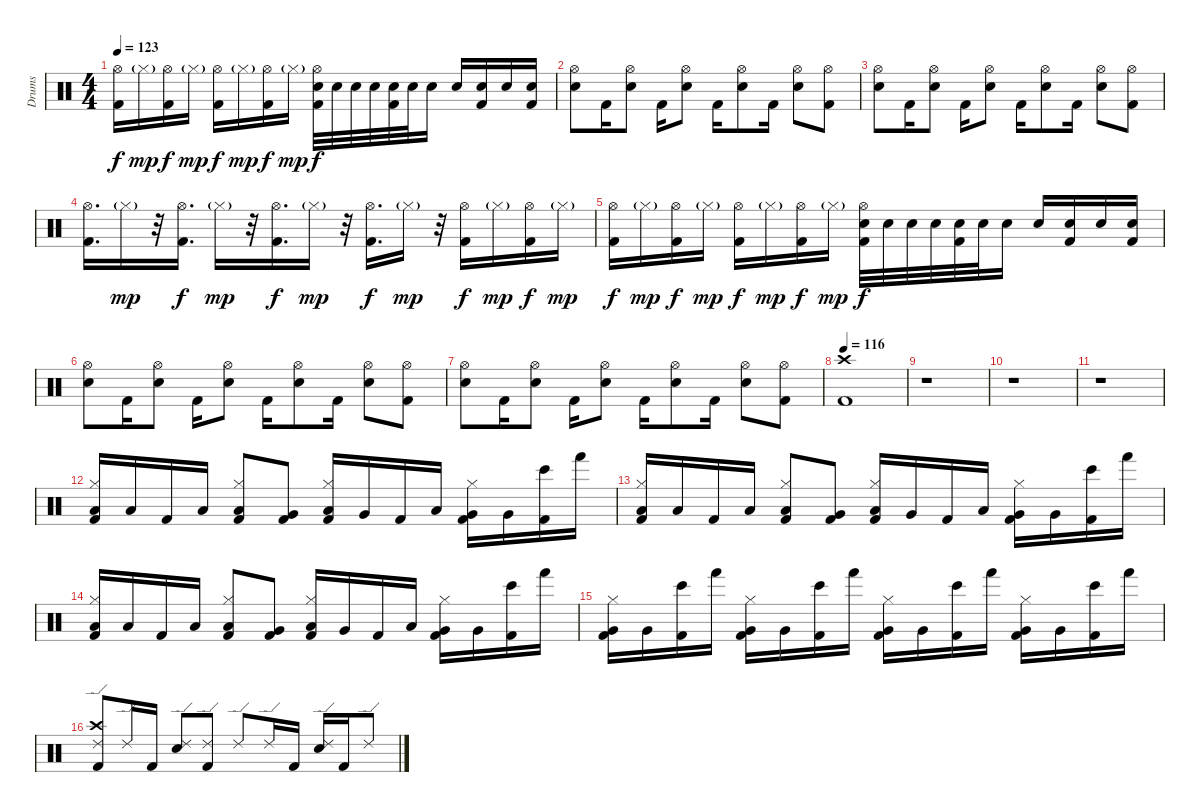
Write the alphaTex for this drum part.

\track ("Drums" "Drums") {instrument percussion}
\staff {score}
\articulation defaults
\ts (4 4)
\tempo 123
\clef neutral
\ks c
("Hi-Hat (open)" "Kick (hit) 2").16{dy f} "Hi-Hat (closed)"{g}.16{dy mp} ("Hi-Hat (open)" "Kick (hit) 2").16{dy f} "Hi-Hat (closed)"{g}.16{dy mp} ("Hi-Hat (open)" "Kick (hit) 2").16{dy f} "Hi-Hat (closed)"{g}.16{dy mp} ("Hi-Hat (open)" "Kick (hit) 2").16{dy f} "Hi-Hat (closed)"{g}.16{dy mp} ("Hi-Hat (open)" "Electric Snare (hit)" "Kick (hit) 2").32{dy f} "Electric Snare (hit)".32 "Electric Snare (hit)".32 "Electric Snare (hit)".32 ("Electric Snare (hit)" "Kick (hit) 2").32 "Electric Snare (hit)".32 "Electric Snare (hit)".16 "Electric Snare (hit)".16 ("Electric Snare (hit)" "Kick (hit) 2").16 "Electric Snare (hit)".16 ("Electric Snare (hit)" "Kick (hit) 2").16 |
("Hi-Hat (open)" "Electric Snare (hit)").8 "Kick (hit) 2".16 ("Hi-Hat (open)" "Electric Snare (hit)").8 "Kick (hit) 2".16 ("Hi-Hat (open)" "Electric Snare (hit)").8 "Kick (hit) 2".16 ("Hi-Hat (open)" "Electric Snare (hit)").8 "Kick (hit) 2".16 ("Hi-Hat (open)" "Electric Snare (hit)").8 ("Hi-Hat (open)" "Kick (hit) 2").8 |
("Hi-Hat (open)" "Electric Snare (hit)").8 "Kick (hit) 2".16 ("Hi-Hat (open)" "Electric Snare (hit)").8 "Kick (hit) 2".16 ("Hi-Hat (open)" "Electric Snare (hit)").8 "Kick (hit) 2".16 ("Hi-Hat (open)" "Electric Snare (hit)").8 "Kick (hit) 2".16 ("Hi-Hat (open)" "Electric Snare (hit)").8 ("Hi-Hat (open)" "Kick (hit) 2").8 |
("Hi-Hat (open)" "Kick (hit) 2").16{d} "Hi-Hat (closed)"{g}.16{dy mp} r.32 ("Hi-Hat (open)" "Kick (hit) 2").16{d dy f} "Hi-Hat (closed)"{g}.16{dy mp} r.32 ("Hi-Hat (open)" "Kick (hit) 2").16{d dy f} "Hi-Hat (closed)"{g}.16{dy mp} r.32 ("Hi-Hat (open)" "Kick (hit) 2").16{d dy f} "Hi-Hat (closed)"{g}.16{dy mp} r.32 ("Hi-Hat (open)" "Kick (hit) 2").16{dy f} "Hi-Hat (closed)"{g}.16{dy mp} ("Hi-Hat (open)" "Kick (hit) 2").16{dy f} "Hi-Hat (closed)"{g}.16{dy mp} |
("Hi-Hat (open)" "Kick (hit) 2").16{dy f} "Hi-Hat (closed)"{g}.16{dy mp} ("Hi-Hat (open)" "Kick (hit) 2").16{dy f} "Hi-Hat (closed)"{g}.16{dy mp} ("Hi-Hat (open)" "Kick (hit) 2").16{dy f} "Hi-Hat (closed)"{g}.16{dy mp} ("Hi-Hat (open)" "Kick (hit) 2").16{dy f} "Hi-Hat (closed)"{g}.16{dy mp} ("Hi-Hat (open)" "Electric Snare (hit)" "Kick (hit) 2").32{dy f} "Electric Snare (hit)".32 "Electric Snare (hit)".32 "Electric Snare (hit)".32 ("Electric Snare (hit)" "Kick (hit) 2").32 "Electric Snare (hit)".32 "Electric Snare (hit)".16 "Electric Snare (hit)".16 ("Electric Snare (hit)" "Kick (hit) 2").16 "Electric Snare (hit)".16 ("Electric Snare (hit)" "Kick (hit) 2").16 |
("Hi-Hat (open)" "Electric Snare (hit)").8 "Kick (hit) 2".16 ("Hi-Hat (open)" "Electric Snare (hit)").8 "Kick (hit) 2".16 ("Hi-Hat (open)" "Electric Snare (hit)").8 "Kick (hit) 2".16 ("Hi-Hat (open)" "Electric Snare (hit)").8 "Kick (hit) 2".16 ("Hi-Hat (open)" "Electric Snare (hit)").8 ("Hi-Hat (open)" "Kick (hit) 2").8 |
("Hi-Hat (open)" "Electric Snare (hit)").8 "Kick (hit) 2".16 ("Hi-Hat (open)" "Electric Snare (hit)").8 "Kick (hit) 2".16 ("Hi-Hat (open)" "Electric Snare (hit)").8 "Kick (hit) 2".16 ("Hi-Hat (open)" "Electric Snare (hit)").8 "Kick (hit) 2".16 ("Hi-Hat (open)" "Electric Snare (hit)").8 ("Hi-Hat (open)" "Kick (hit) 2").8 |
\tempo 116
("Crash high (hit)" "Kick (hit) 2").1 |
r.1 |
r.1 |
r.1 |
("Hi-Hat (closed)" "Low Floor Tom (hit)" "Kick (hit) 2").16 "Low Floor Tom (hit)".16 "Kick (hit) 2".16 "Low Floor Tom (hit)".16 ("Hi-Hat (closed)" "Low Floor Tom (hit)" "Kick (hit) 2").8 ("Very Low Tom (hit)" "Kick (hit) 2").8 ("Hi-Hat (closed)" "Low Floor Tom (hit)" "Kick (hit) 2").16 "Very Low Tom (hit)".16 "Kick (hit) 2".16 "Low Floor Tom (hit)".16 ("Hi-Hat (closed)" "Very Low Tom (hit)" "Kick (hit) 2").16 "Very Low Tom (hit)".16 ("Bongo High (hit)" "Kick (hit) 2").16 "Hand (hit)".16 |
("Hi-Hat (closed)" "Low Floor Tom (hit)" "Kick (hit) 2").16 "Low Floor Tom (hit)".16 "Kick (hit) 2".16 "Low Floor Tom (hit)".16 ("Hi-Hat (closed)" "Low Floor Tom (hit)" "Kick (hit) 2").8 ("Very Low Tom (hit)" "Kick (hit) 2").8 ("Hi-Hat (closed)" "Low Floor Tom (hit)" "Kick (hit) 2").16 "Very Low Tom (hit)".16 "Kick (hit) 2".16 "Low Floor Tom (hit)".16 ("Hi-Hat (closed)" "Very Low Tom (hit)" "Kick (hit) 2").16 "Very Low Tom (hit)".16 ("Bongo High (hit)" "Kick (hit) 2").16 "Hand (hit)".16 |
("Hi-Hat (closed)" "Low Floor Tom (hit)" "Kick (hit) 2").16 "Low Floor Tom (hit)".16 "Kick (hit) 2".16 "Low Floor Tom (hit)".16 ("Hi-Hat (closed)" "Low Floor Tom (hit)" "Kick (hit) 2").8 ("Very Low Tom (hit)" "Kick (hit) 2").8 ("Hi-Hat (closed)" "Low Floor Tom (hit)" "Kick (hit) 2").16 "Very Low Tom (hit)".16 "Kick (hit) 2".16 "Low Floor Tom (hit)".16 ("Hi-Hat (closed)" "Very Low Tom (hit)" "Kick (hit) 2").16 "Very Low Tom (hit)".16 ("Bongo High (hit)" "Kick (hit) 2").16 "Hand (hit)".16 |
("Hi-Hat (closed)" "Very Low Tom (hit)" "Kick (hit) 2").16 "Very Low Tom (hit)".16 ("Bongo High (hit)" "Kick (hit) 2").16 "Hand (hit)".16 ("Hi-Hat (closed)" "Very Low Tom (hit)" "Kick (hit) 2").16 "Very Low Tom (hit)".16 ("Bongo High (hit)" "Kick (hit) 2").16 "Hand (hit)".16 ("Hi-Hat (closed)" "Very Low Tom (hit)" "Kick (hit) 2").16 "Very Low Tom (hit)".16 ("Bongo High (hit)" "Kick (hit) 2").16 "Hand (hit)".16 ("Hi-Hat (closed)" "Very Low Tom (hit)" "Kick (hit) 2").16 "Very Low Tom (hit)".16 ("Bongo High (hit)" "Kick (hit) 2").16 "Hand (hit)".16 |
("Crash high (hit)" "Ride (edge) 2" "Kick (hit) 2").8 "Ride (edge) 2".16 "Kick (hit) 2".16 ("Ride (edge) 2" "Electric Snare (hit)").8 ("Ride (edge) 2" "Kick (hit) 2").8 "Ride (edge) 2".8 "Ride (edge) 2".16 "Kick (hit) 2".16 ("Ride (edge) 2" "Electric Snare (hit)").16 "Kick (hit) 2".16 "Ride (edge) 2".8
